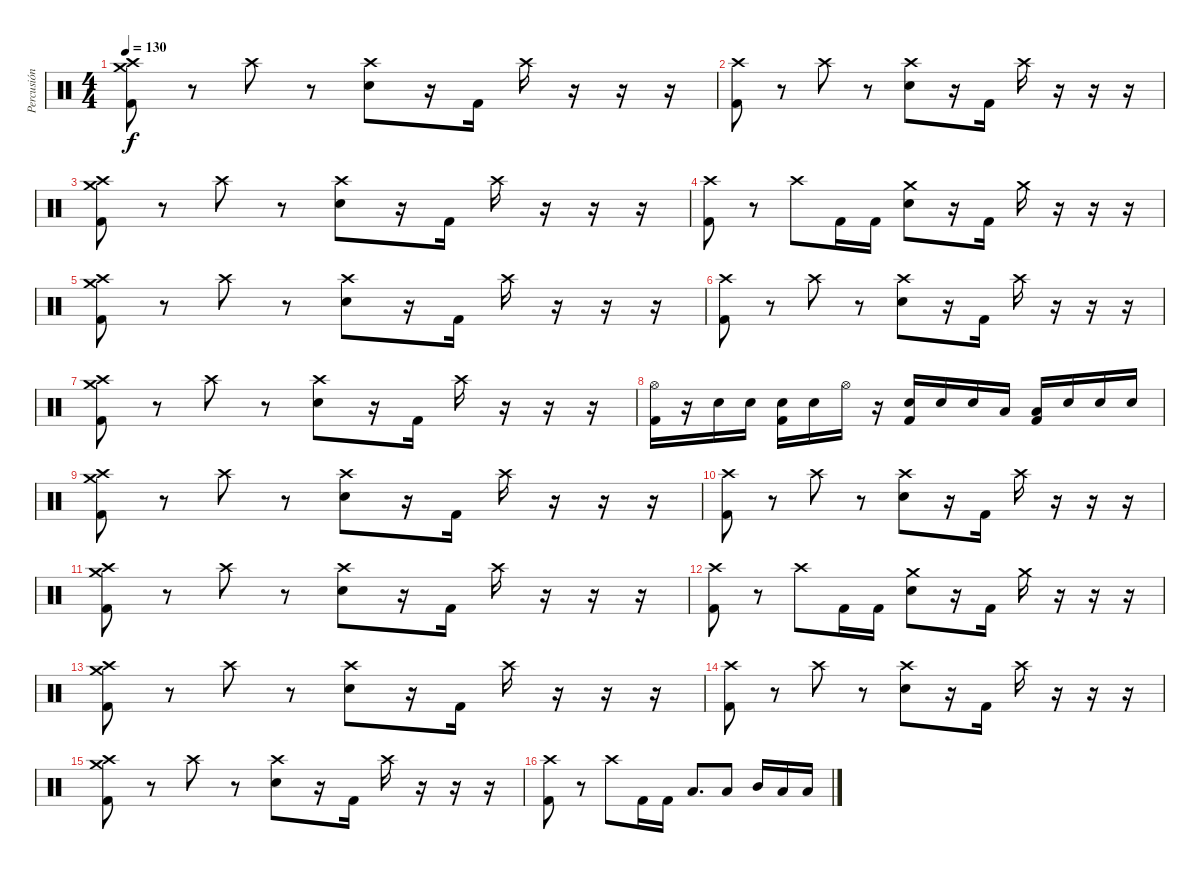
\track ("Percusión" "Percusión") {instrument percussion}
\staff {score}
\articulation defaults
\ts (4 4)
\tempo 130
\clef neutral
\ks c
("Crash medium (hit)" "Crash high (hit)" "Kick (hit) 2").8{dy f} r.8 "Crash high (hit)".8 r.8 ("Crash high (hit)" "Electric Snare (hit)").8 r.16 "Kick (hit) 2".16 "Crash high (hit)".16 r.16 r.16 r.16 |
("Crash high (hit)" "Kick (hit) 2").8 r.8 "Crash high (hit)".8 r.8 ("Crash high (hit)" "Electric Snare (hit)").8 r.16 "Kick (hit) 2".16 "Crash high (hit)".16 r.16 r.16 r.16 |
("Crash medium (hit)" "Crash high (hit)" "Kick (hit) 2").8 r.8 "Crash high (hit)".8 r.8 ("Crash high (hit)" "Electric Snare (hit)").8 r.16 "Kick (hit) 2".16 "Crash high (hit)".16 r.16 r.16 r.16 |
("Crash high (hit)" "Kick (hit) 2").8 r.8 "Crash high (hit)".8 "Kick (hit) 2".16 "Kick (hit) 2".16 ("Crash medium (hit)" "Electric Snare (hit)").8 r.16 "Kick (hit) 2".16 "Crash medium (hit)".16 r.16 r.16 r.16 |
("Crash medium (hit)" "Crash high (hit)" "Kick (hit) 2").8 r.8 "Crash high (hit)".8 r.8 ("Crash high (hit)" "Electric Snare (hit)").8 r.16 "Kick (hit) 2".16 "Crash high (hit)".16 r.16 r.16 r.16 |
("Crash high (hit)" "Kick (hit) 2").8 r.8 "Crash high (hit)".8 r.8 ("Crash high (hit)" "Electric Snare (hit)").8 r.16 "Kick (hit) 2".16 "Crash high (hit)".16 r.16 r.16 r.16 |
("Crash medium (hit)" "Crash high (hit)" "Kick (hit) 2").8 r.8 "Crash high (hit)".8 r.8 ("Crash high (hit)" "Electric Snare (hit)").8 r.16 "Kick (hit) 2".16 "Crash high (hit)".16 r.16 r.16 r.16 |
("Hi-Hat (open)" "Kick (hit) 2").16 r.16 "Electric Snare (hit)".16 "Electric Snare (hit)".16 ("Electric Snare (hit)" "Kick (hit) 2").16 "Electric Snare (hit)".16 "Hi-Hat (open)".16 r.16 ("Electric Snare (hit)" "Kick (hit) 2").16 "Electric Snare (hit)".16 "Electric Snare (hit)".16 "Low Tom (hit)".16 ("Low Tom (hit)" "Kick (hit) 2").16 "Electric Snare (hit)".16 "Electric Snare (hit)".16 "Electric Snare (hit)".16 |
("Crash medium (hit)" "Crash high (hit)" "Kick (hit) 2").8 r.8 "Crash high (hit)".8 r.8 ("Crash high (hit)" "Electric Snare (hit)").8 r.16 "Kick (hit) 2".16 "Crash high (hit)".16 r.16 r.16 r.16 |
("Crash high (hit)" "Kick (hit) 2").8 r.8 "Crash high (hit)".8 r.8 ("Crash high (hit)" "Electric Snare (hit)").8 r.16 "Kick (hit) 2".16 "Crash high (hit)".16 r.16 r.16 r.16 |
("Crash medium (hit)" "Crash high (hit)" "Kick (hit) 2").8 r.8 "Crash high (hit)".8 r.8 ("Crash high (hit)" "Electric Snare (hit)").8 r.16 "Kick (hit) 2".16 "Crash high (hit)".16 r.16 r.16 r.16 |
("Crash high (hit)" "Kick (hit) 2").8 r.8 "Crash high (hit)".8 "Kick (hit) 2".16 "Kick (hit) 2".16 ("Crash medium (hit)" "Electric Snare (hit)").8 r.16 "Kick (hit) 2".16 "Crash medium (hit)".16 r.16 r.16 r.16 |
("Crash medium (hit)" "Crash high (hit)" "Kick (hit) 2").8 r.8 "Crash high (hit)".8 r.8 ("Crash high (hit)" "Electric Snare (hit)").8 r.16 "Kick (hit) 2".16 "Crash high (hit)".16 r.16 r.16 r.16 |
("Crash high (hit)" "Kick (hit) 2").8 r.8 "Crash high (hit)".8 r.8 ("Crash high (hit)" "Electric Snare (hit)").8 r.16 "Kick (hit) 2".16 "Crash high (hit)".16 r.16 r.16 r.16 |
("Crash medium (hit)" "Crash high (hit)" "Kick (hit) 2").8 r.8 "Crash high (hit)".8 r.8 ("Crash high (hit)" "Electric Snare (hit)").8 r.16 "Kick (hit) 2".16 "Crash high (hit)".16 r.16 r.16 r.16 |
("Crash high (hit)" "Kick (hit) 2").8 r.8 "Crash high (hit)".8 "Kick (hit) 2".16 "Kick (hit) 2".16 "Low Tom (hit)".8{d} "Low Tom (hit)".8 "Mid Tom (hit)".16 "Low Tom (hit)".16 "Low Tom (hit)".16
